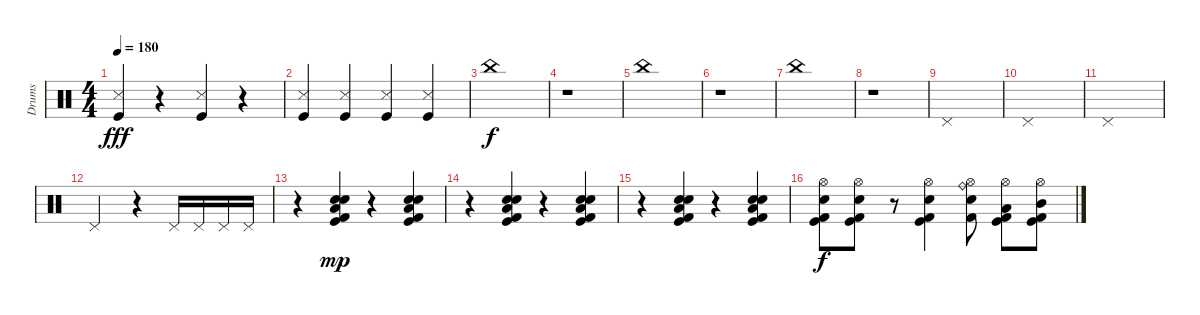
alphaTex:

\track ("Drums" "Drums") {instrument percussion}
\staff {score}
\articulation defaults
\ts (4 4)
\tempo 180
\clef neutral
\ks c
("Snare (side stick) 3" "Kick (hit)").4{dy fff} r.4 ("Snare (side stick) 3" "Kick (hit)").4 r.4 |
("Snare (side stick) 3" "Kick (hit)").4 ("Snare (side stick) 3" "Kick (hit)").4 ("Snare (side stick) 3" "Kick (hit)").4 ("Snare (side stick) 3" "Kick (hit)").4 |
"China (hit)".1{dy f} |
r.1 |
"China (hit)".1 |
r.1 |
"China (hit)".1 |
r.1 |
"Pedal Hi-Hat (hit)".1 |
"Pedal Hi-Hat (hit)".1 |
"Pedal Hi-Hat (hit)".1 |
"Pedal Hi-Hat (hit)".2 r.4 "Pedal Hi-Hat (hit)".16 "Pedal Hi-Hat (hit)".16 "Pedal Hi-Hat (hit)".16 "Pedal Hi-Hat (hit)".16 |
r.4 ("Electric Snare (hit)" "Low Tom (hit)" "Hand Clap (hit)" "Kick (hit) 2" "Kick (hit)").4{dy mp} r.4 ("Electric Snare (hit)" "Low Tom (hit)" "Hand Clap (hit)" "Kick (hit) 2" "Kick (hit)").4 |
r.4 ("Electric Snare (hit)" "Low Tom (hit)" "Hand Clap (hit)" "Kick (hit) 2" "Kick (hit)").4 r.4 ("Electric Snare (hit)" "Low Tom (hit)" "Hand Clap (hit)" "Kick (hit) 2" "Kick (hit)").4 |
r.4 ("Electric Snare (hit)" "Low Tom (hit)" "Hand Clap (hit)" "Kick (hit) 2" "Kick (hit)").4 r.4 ("Electric Snare (hit)" "Low Tom (hit)" "Hand Clap (hit)" "Kick (hit) 2" "Kick (hit)").4 |
("Electric Snare (hit)" "Hi-Hat (open)" "Kick (hit) 2" "Kick (hit)").8{dy f} ("Electric Snare (hit)" "Hi-Hat (open)" "Kick (hit) 2" "Kick (hit)").8 r.8 ("Electric Snare (hit)" "Hi-Hat (open)" "Kick (hit) 2" "Kick (hit)").4 ("Electric Snare (hit)" "Hi-Hat (open)" "Kick (hit) 2" "Ride (bell)").8 ("Low Tom (hit)" "Hi-Hat (open)" "Kick (hit) 2" "Kick (hit)").8 ("Mid Tom (hit)" "Hi-Hat (open)" "Kick (hit) 2" "Kick (hit)").8
